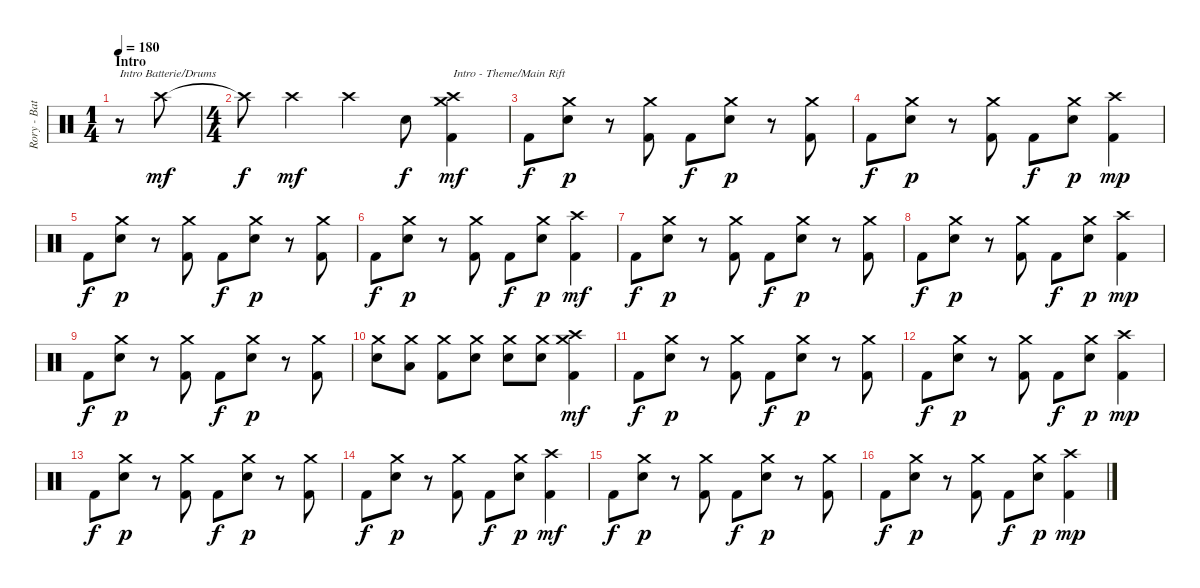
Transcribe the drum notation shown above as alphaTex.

\track ("Rory - Batterie/Drums" "Rory - Bat") {instrument percussion}
\staff {score}
\articulation defaults
\ts (1 4)
\section ("" "Intro")
\tempo 180
\clef neutral
\ks c
r.8{txt "Intro Batterie/Drums" dy mf} "Crash high (hit)".8 |
\ts (4 4)
"Crash high (hit)"{t}.8{dy f} "Crash high (hit)".4{dy mf} "Crash high (hit)".4 "Electric Snare (hit)".8{dy f} ("Crash medium (hit)" "Crash high (hit)" "Kick (hit) 2").4{txt "Intro - Theme/Main Rift" dy mf} |
"Kick (hit) 2".8{dy f} ("Crash medium (hit)" "Electric Snare (hit)").8{dy p} r.8 ("Crash medium (hit)" "Kick (hit) 2").8 "Kick (hit) 2".8{dy f} ("Crash medium (hit)" "Electric Snare (hit)").8{dy p} r.8 ("Crash medium (hit)" "Kick (hit) 2").8 |
"Kick (hit) 2".8{dy f} ("Crash medium (hit)" "Electric Snare (hit)").8{dy p} r.8 ("Crash medium (hit)" "Kick (hit) 2").8 "Kick (hit) 2".8{dy f} ("Crash medium (hit)" "Electric Snare (hit)").8{dy p} ("Crash high (hit)" "Kick (hit) 2").4{dy mp} |
"Kick (hit) 2".8{dy f} ("Crash medium (hit)" "Electric Snare (hit)").8{dy p} r.8 ("Crash medium (hit)" "Kick (hit) 2").8 "Kick (hit) 2".8{dy f} ("Crash medium (hit)" "Electric Snare (hit)").8{dy p} r.8 ("Crash medium (hit)" "Kick (hit) 2").8 |
"Kick (hit) 2".8{dy f} ("Crash medium (hit)" "Electric Snare (hit)").8{dy p} r.8 ("Crash medium (hit)" "Kick (hit) 2").8 "Kick (hit) 2".8{dy f} ("Crash medium (hit)" "Electric Snare (hit)").8{dy p} ("Crash high (hit)" "Kick (hit) 2").4{dy mf} |
"Kick (hit) 2".8{dy f} ("Crash medium (hit)" "Electric Snare (hit)").8{dy p} r.8 ("Crash medium (hit)" "Kick (hit) 2").8 "Kick (hit) 2".8{dy f} ("Crash medium (hit)" "Electric Snare (hit)").8{dy p} r.8 ("Crash medium (hit)" "Kick (hit) 2").8 |
"Kick (hit) 2".8{dy f} ("Crash medium (hit)" "Electric Snare (hit)").8{dy p} r.8 ("Crash medium (hit)" "Kick (hit) 2").8 "Kick (hit) 2".8{dy f} ("Crash medium (hit)" "Electric Snare (hit)").8{dy p} ("Crash high (hit)" "Kick (hit) 2").4{dy mp} |
"Kick (hit) 2".8{dy f} ("Crash medium (hit)" "Electric Snare (hit)").8{dy p} r.8 ("Crash medium (hit)" "Kick (hit) 2").8 "Kick (hit) 2".8{dy f} ("Crash medium (hit)" "Electric Snare (hit)").8{dy p} r.8 ("Crash medium (hit)" "Kick (hit) 2").8 |
("Crash medium (hit)" "Electric Snare (hit)").8 ("Crash medium (hit)" "Low Tom (hit)").8 ("Crash medium (hit)" "Kick (hit) 2").8 ("Crash medium (hit)" "Electric Snare (hit)").8 ("Crash medium (hit)" "Electric Snare (hit)").8 ("Crash medium (hit)" "Electric Snare (hit)").8 ("Crash medium (hit)" "Crash high (hit)" "Kick (hit) 2").4{dy mf} |
"Kick (hit) 2".8{dy f} ("Crash medium (hit)" "Electric Snare (hit)").8{dy p} r.8 ("Crash medium (hit)" "Kick (hit) 2").8 "Kick (hit) 2".8{dy f} ("Crash medium (hit)" "Electric Snare (hit)").8{dy p} r.8 ("Crash medium (hit)" "Kick (hit) 2").8 |
"Kick (hit) 2".8{dy f} ("Crash medium (hit)" "Electric Snare (hit)").8{dy p} r.8 ("Crash medium (hit)" "Kick (hit) 2").8 "Kick (hit) 2".8{dy f} ("Crash medium (hit)" "Electric Snare (hit)").8{dy p} ("Crash high (hit)" "Kick (hit) 2").4{dy mp} |
"Kick (hit) 2".8{dy f} ("Crash medium (hit)" "Electric Snare (hit)").8{dy p} r.8 ("Crash medium (hit)" "Kick (hit) 2").8 "Kick (hit) 2".8{dy f} ("Crash medium (hit)" "Electric Snare (hit)").8{dy p} r.8 ("Crash medium (hit)" "Kick (hit) 2").8 |
"Kick (hit) 2".8{dy f} ("Crash medium (hit)" "Electric Snare (hit)").8{dy p} r.8 ("Crash medium (hit)" "Kick (hit) 2").8 "Kick (hit) 2".8{dy f} ("Crash medium (hit)" "Electric Snare (hit)").8{dy p} ("Crash high (hit)" "Kick (hit) 2").4{dy mf} |
"Kick (hit) 2".8{dy f} ("Crash medium (hit)" "Electric Snare (hit)").8{dy p} r.8 ("Crash medium (hit)" "Kick (hit) 2").8 "Kick (hit) 2".8{dy f} ("Crash medium (hit)" "Electric Snare (hit)").8{dy p} r.8 ("Crash medium (hit)" "Kick (hit) 2").8 |
"Kick (hit) 2".8{dy f} ("Crash medium (hit)" "Electric Snare (hit)").8{dy p} r.8 ("Crash medium (hit)" "Kick (hit) 2").8 "Kick (hit) 2".8{dy f} ("Crash medium (hit)" "Electric Snare (hit)").8{dy p} ("Crash high (hit)" "Kick (hit) 2").4{dy mp}
